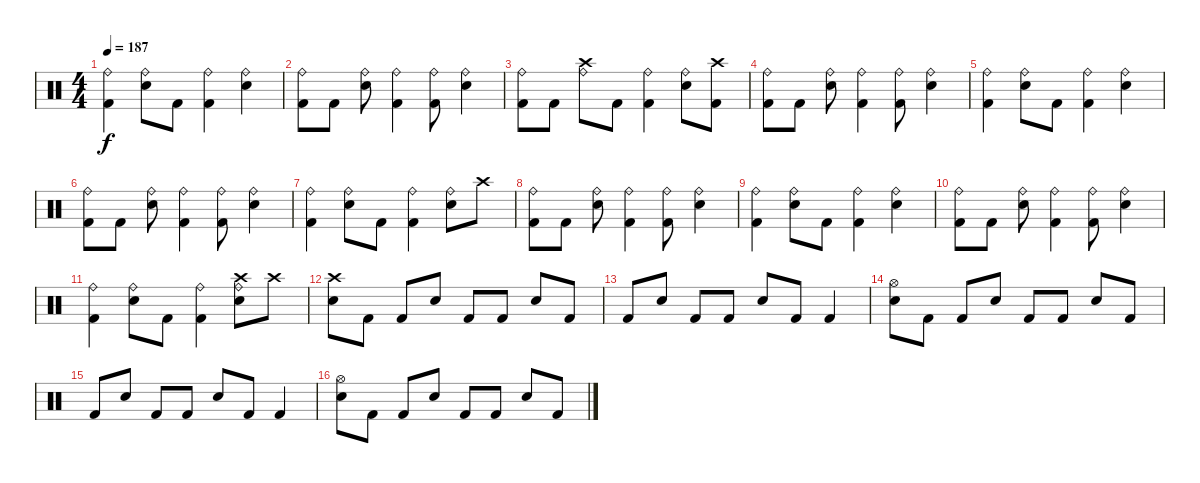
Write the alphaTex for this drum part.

\track "" {instrument percussion}
\staff {score}
\articulation defaults
\ts (4 4)
\tempo 187
\clef neutral
\ks c
("Ride (bell)" "Kick (hit) 2").4{dy f} ("Ride (bell)" "Electric Snare (hit)").8 "Kick (hit) 2".8 ("Ride (bell)" "Kick (hit) 2").4 ("Ride (bell)" "Electric Snare (hit)").4 |
("Ride (bell)" "Kick (hit) 2").8 "Kick (hit) 2".8 ("Ride (bell)" "Electric Snare (hit)").8 ("Ride (bell)" "Kick (hit) 2").4 ("Ride (bell)" "Kick (hit) 2").8 ("Ride (bell)" "Electric Snare (hit)").4 |
("Ride (bell)" "Kick (hit) 2").8 "Kick (hit) 2".8 ("Ride (bell)" "Crash high (hit)").8 "Kick (hit) 2".8 ("Ride (bell)" "Kick (hit) 2").4 ("Ride (bell)" "Electric Snare (hit)").8 ("Crash high (hit)" "Kick (hit) 2").8 |
("Ride (bell)" "Kick (hit) 2").8 "Kick (hit) 2".8 ("Ride (bell)" "Electric Snare (hit)").8 ("Ride (bell)" "Kick (hit) 2").4 ("Ride (bell)" "Kick (hit) 2").8 ("Ride (bell)" "Electric Snare (hit)").4 |
("Ride (bell)" "Kick (hit) 2").4 ("Ride (bell)" "Electric Snare (hit)").8 "Kick (hit) 2".8 ("Ride (bell)" "Kick (hit) 2").4 ("Ride (bell)" "Electric Snare (hit)").4 |
("Ride (bell)" "Kick (hit) 2").8 "Kick (hit) 2".8 ("Ride (bell)" "Electric Snare (hit)").8 ("Ride (bell)" "Kick (hit) 2").4 ("Ride (bell)" "Kick (hit) 2").8 ("Ride (bell)" "Electric Snare (hit)").4 |
("Ride (bell)" "Kick (hit) 2").4 ("Ride (bell)" "Electric Snare (hit)").8 "Kick (hit) 2".8 ("Ride (bell)" "Kick (hit) 2").4 ("Ride (bell)" "Electric Snare (hit)").8 "Crash high (hit)".8 |
("Ride (bell)" "Kick (hit) 2").8 "Kick (hit) 2".8 ("Ride (bell)" "Electric Snare (hit)").8 ("Ride (bell)" "Kick (hit) 2").4 ("Ride (bell)" "Kick (hit) 2").8 ("Ride (bell)" "Electric Snare (hit)").4 |
("Ride (bell)" "Kick (hit) 2").4 ("Ride (bell)" "Electric Snare (hit)").8 "Kick (hit) 2".8 ("Ride (bell)" "Kick (hit) 2").4 ("Ride (bell)" "Electric Snare (hit)").4 |
("Ride (bell)" "Kick (hit) 2").8 "Kick (hit) 2".8 ("Ride (bell)" "Electric Snare (hit)").8 ("Ride (bell)" "Kick (hit) 2").4 ("Ride (bell)" "Kick (hit) 2").8 ("Ride (bell)" "Electric Snare (hit)").4 |
("Ride (bell)" "Kick (hit) 2").4 ("Ride (bell)" "Electric Snare (hit)").8 "Kick (hit) 2".8 ("Ride (bell)" "Kick (hit) 2").4 ("Ride (bell)" "Crash high (hit)" "Electric Snare (hit)").8 "Crash high (hit)".8 |
("Crash high (hit)" "Electric Snare (hit)").8 "Kick (hit) 2".8 "Kick (hit) 2".8 "Electric Snare (hit)".8 "Kick (hit) 2".8 "Kick (hit) 2".8 "Electric Snare (hit)".8 "Kick (hit) 2".8 |
"Kick (hit) 2".8 "Electric Snare (hit)".8 "Kick (hit) 2".8 "Kick (hit) 2".8 "Electric Snare (hit)".8 "Kick (hit) 2".8 "Kick (hit) 2".4 |
("Hi-Hat (open)" "Electric Snare (hit)").8 "Kick (hit) 2".8 "Kick (hit) 2".8 "Electric Snare (hit)".8 "Kick (hit) 2".8 "Kick (hit) 2".8 "Electric Snare (hit)".8 "Kick (hit) 2".8 |
"Kick (hit) 2".8 "Electric Snare (hit)".8 "Kick (hit) 2".8 "Kick (hit) 2".8 "Electric Snare (hit)".8 "Kick (hit) 2".8 "Kick (hit) 2".4 |
("Hi-Hat (open)" "Electric Snare (hit)").8 "Kick (hit) 2".8 "Kick (hit) 2".8 "Electric Snare (hit)".8 "Kick (hit) 2".8 "Kick (hit) 2".8 "Electric Snare (hit)".8 "Kick (hit) 2".8
